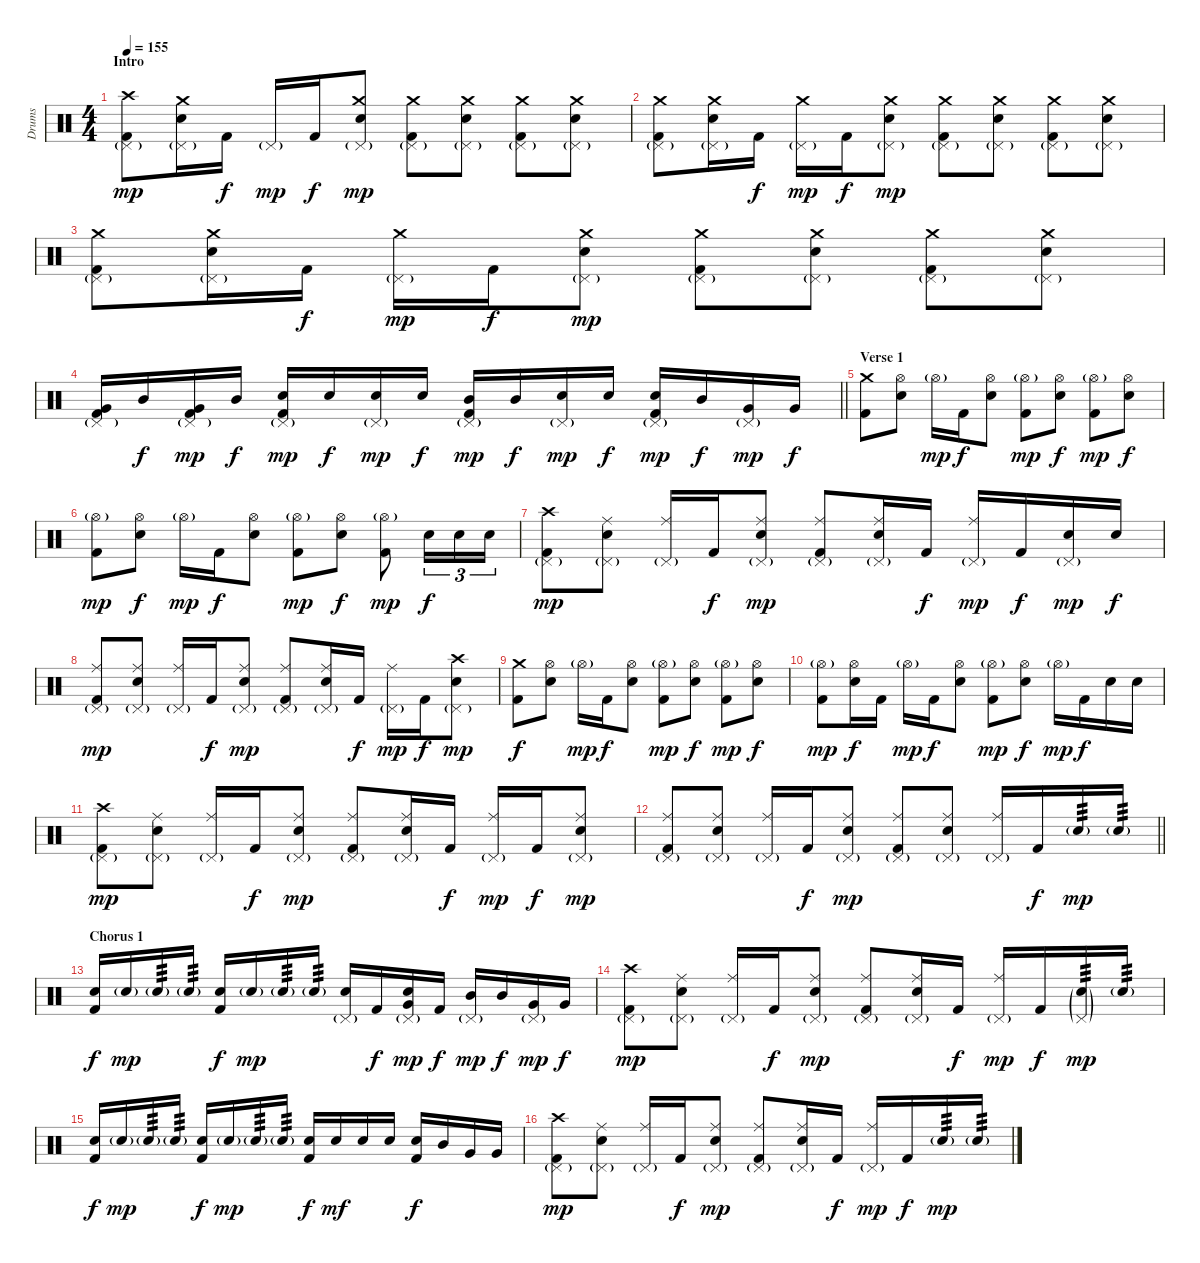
\track ("Drums" "Drums") {instrument percussion}
\staff {score}
\articulation defaults
\ts (4 4)
\section ("" "Intro")
\tempo 155
\clef neutral
\ks c
("Crash high (hit)" "Pedal Hi-Hat (hit)"{g} "Kick (hit) 2").8{dy mp} ("Crash medium (hit)" "Pedal Hi-Hat (hit)"{g} "Electric Snare (hit)").16 "Kick (hit) 2".16{dy f} "Pedal Hi-Hat (hit)"{g}.16{dy mp} "Kick (hit) 2".16{dy f} ("Crash medium (hit)" "Pedal Hi-Hat (hit)"{g} "Electric Snare (hit)").8{dy mp} ("Crash medium (hit)" "Pedal Hi-Hat (hit)"{g} "Kick (hit) 2").8 ("Crash medium (hit)" "Pedal Hi-Hat (hit)"{g} "Electric Snare (hit)").8 ("Crash medium (hit)" "Pedal Hi-Hat (hit)"{g} "Kick (hit) 2").8 ("Crash medium (hit)" "Pedal Hi-Hat (hit)"{g} "Electric Snare (hit)").8 |
("Crash medium (hit)" "Pedal Hi-Hat (hit)"{g} "Kick (hit) 2").8 ("Crash medium (hit)" "Pedal Hi-Hat (hit)"{g} "Electric Snare (hit)").16 "Kick (hit) 2".16{dy f} ("Crash medium (hit)" "Pedal Hi-Hat (hit)"{g}).16{dy mp} "Kick (hit) 2".16{dy f} ("Crash medium (hit)" "Pedal Hi-Hat (hit)"{g} "Electric Snare (hit)").8{dy mp} ("Crash medium (hit)" "Pedal Hi-Hat (hit)"{g} "Kick (hit) 2").8 ("Crash medium (hit)" "Pedal Hi-Hat (hit)"{g} "Electric Snare (hit)").8 ("Crash medium (hit)" "Pedal Hi-Hat (hit)"{g} "Kick (hit) 2").8 ("Crash medium (hit)" "Pedal Hi-Hat (hit)"{g} "Electric Snare (hit)").8 |
("Crash medium (hit)" "Pedal Hi-Hat (hit)"{g} "Kick (hit) 2").8 ("Crash medium (hit)" "Pedal Hi-Hat (hit)"{g} "Electric Snare (hit)").16 "Kick (hit) 2".16{dy f} ("Crash medium (hit)" "Pedal Hi-Hat (hit)"{g}).16{dy mp} "Kick (hit) 2".16{dy f} ("Crash medium (hit)" "Pedal Hi-Hat (hit)"{g} "Electric Snare (hit)").8{dy mp} ("Crash medium (hit)" "Pedal Hi-Hat (hit)"{g} "Kick (hit) 2").8 ("Crash medium (hit)" "Pedal Hi-Hat (hit)"{g} "Electric Snare (hit)").8 ("Crash medium (hit)" "Pedal Hi-Hat (hit)"{g} "Kick (hit) 2").8 ("Crash medium (hit)" "Pedal Hi-Hat (hit)"{g} "Electric Snare (hit)").8 |
\barLineRight lightlight
("Pedal Hi-Hat (hit)"{g} "Very Low Tom (hit)" "Kick (hit) 2").16 "Mid Tom (hit)".16{dy f} ("Pedal Hi-Hat (hit)"{g} "Very Low Tom (hit)" "Kick (hit) 2").16{dy mp} "Mid Tom (hit)".16{dy f} ("Pedal Hi-Hat (hit)"{g} "Electric Snare (hit)" "Kick (hit) 2").16{dy mp} "Electric Snare (hit)".16{dy f} ("Pedal Hi-Hat (hit)"{g} "Electric Snare (hit)").16{dy mp} "Electric Snare (hit)".16{dy f} ("Pedal Hi-Hat (hit)"{g} "Mid Tom (hit)" "Kick (hit) 2").16{dy mp} "Mid Tom (hit)".16{dy f} ("Pedal Hi-Hat (hit)"{g} "Electric Snare (hit)").16{dy mp} "Electric Snare (hit)".16{dy f} ("Pedal Hi-Hat (hit)"{g} "Electric Snare (hit)" "Kick (hit) 2").16{dy mp} "Mid Tom (hit)".16{dy f} ("Pedal Hi-Hat (hit)"{g} "Very Low Tom (hit)").16{dy mp} "Very Low Tom (hit)".16{dy f} |
\section ("" "Verse 1")
("Crash medium (hit)" "Kick (hit) 2").8 ("Hi-Hat (open)" "Electric Snare (hit)").8 "Hi-Hat (open)"{g}.16{dy mp} "Kick (hit) 2".16{dy f} ("Hi-Hat (open)" "Electric Snare (hit)").8 ("Hi-Hat (open)"{g} "Kick (hit) 2").8{dy mp} ("Hi-Hat (open)" "Electric Snare (hit)").8{dy f} ("Hi-Hat (open)"{g} "Kick (hit) 2").8{dy mp} ("Hi-Hat (open)" "Electric Snare (hit)").8{dy f} |
("Hi-Hat (open)"{g} "Kick (hit) 2").8{dy mp} ("Hi-Hat (open)" "Electric Snare (hit)").8{dy f} "Hi-Hat (open)"{g}.16{dy mp} "Kick (hit) 2".16{dy f} ("Hi-Hat (open)" "Electric Snare (hit)").8 ("Hi-Hat (open)"{g} "Kick (hit) 2").8{dy mp} ("Hi-Hat (open)" "Electric Snare (hit)").8{dy f} ("Hi-Hat (open)"{g} "Kick (hit) 2").8{dy mp} "Electric Snare (hit)".16{tu (3 2) dy f} "Electric Snare (hit)".16{tu (3 2)} "Electric Snare (hit)".16{tu (3 2)} |
("Crash high (hit)" "Pedal Hi-Hat (hit)"{g} "Kick (hit) 2").8{dy mp} ("Ride (middle)" "Pedal Hi-Hat (hit)"{g} "Electric Snare (hit)").8 ("Ride (middle)" "Pedal Hi-Hat (hit)"{g}).16 "Kick (hit) 2".16{dy f} ("Ride (middle)" "Pedal Hi-Hat (hit)"{g} "Electric Snare (hit)").8{dy mp} ("Ride (middle)" "Pedal Hi-Hat (hit)"{g} "Kick (hit) 2").8 ("Ride (middle)" "Pedal Hi-Hat (hit)"{g} "Electric Snare (hit)").16 "Kick (hit) 2".16{dy f} ("Ride (middle)" "Pedal Hi-Hat (hit)"{g}).16{dy mp} "Kick (hit) 2".16{dy f} ("Pedal Hi-Hat (hit)"{g} "Electric Snare (hit)").16{dy mp} "Electric Snare (hit)".16{dy f} |
("Ride (middle)" "Pedal Hi-Hat (hit)"{g} "Kick (hit) 2").8{dy mp} ("Ride (middle)" "Pedal Hi-Hat (hit)"{g} "Electric Snare (hit)").8 ("Ride (middle)" "Pedal Hi-Hat (hit)"{g}).16 "Kick (hit) 2".16{dy f} ("Ride (middle)" "Pedal Hi-Hat (hit)"{g} "Electric Snare (hit)").8{dy mp} ("Ride (middle)" "Pedal Hi-Hat (hit)"{g} "Kick (hit) 2").8 ("Ride (middle)" "Pedal Hi-Hat (hit)"{g} "Electric Snare (hit)").16 "Kick (hit) 2".16{dy f} ("Ride (middle)" "Pedal Hi-Hat (hit)"{g}).16{dy mp} "Kick (hit) 2".16{dy f} ("Crash high (hit)" "Pedal Hi-Hat (hit)"{g} "Electric Snare (hit)").8{dy mp} |
("Crash medium (hit)" "Kick (hit) 2").8{dy f} ("Hi-Hat (open)" "Electric Snare (hit)").8 "Hi-Hat (open)"{g}.16{dy mp} "Kick (hit) 2".16{dy f} ("Hi-Hat (open)" "Electric Snare (hit)").8 ("Hi-Hat (open)"{g} "Kick (hit) 2").8{dy mp} ("Hi-Hat (open)" "Electric Snare (hit)").8{dy f} ("Hi-Hat (open)"{g} "Kick (hit) 2").8{dy mp} ("Hi-Hat (open)" "Electric Snare (hit)").8{dy f} |
("Hi-Hat (open)"{g} "Kick (hit) 2").8{dy mp} ("Hi-Hat (open)" "Electric Snare (hit)").16{dy f} "Kick (hit) 2".16 "Hi-Hat (open)"{g}.16{dy mp} "Kick (hit) 2".16{dy f} ("Hi-Hat (open)" "Electric Snare (hit)").8 ("Hi-Hat (open)"{g} "Kick (hit) 2").8{dy mp} ("Hi-Hat (open)" "Electric Snare (hit)").8{dy f} "Hi-Hat (open)"{g}.16{dy mp} "Kick (hit) 2".16{dy f} "Electric Snare (hit)".16 "Electric Snare (hit)".16 |
("Crash high (hit)" "Pedal Hi-Hat (hit)"{g} "Kick (hit) 2").8{dy mp} ("Ride (middle)" "Pedal Hi-Hat (hit)"{g} "Electric Snare (hit)").8 ("Ride (middle)" "Pedal Hi-Hat (hit)"{g}).16 "Kick (hit) 2".16{dy f} ("Ride (middle)" "Pedal Hi-Hat (hit)"{g} "Electric Snare (hit)").8{dy mp} ("Ride (middle)" "Pedal Hi-Hat (hit)"{g} "Kick (hit) 2").8 ("Ride (middle)" "Pedal Hi-Hat (hit)"{g} "Electric Snare (hit)").16 "Kick (hit) 2".16{dy f} ("Ride (middle)" "Pedal Hi-Hat (hit)"{g}).16{dy mp} "Kick (hit) 2".16{dy f} ("Ride (middle)" "Pedal Hi-Hat (hit)"{g} "Electric Snare (hit)").8{dy mp} |
\barLineRight lightlight
("Ride (middle)" "Pedal Hi-Hat (hit)"{g} "Kick (hit) 2").8 ("Ride (middle)" "Pedal Hi-Hat (hit)"{g} "Electric Snare (hit)").8 ("Ride (middle)" "Pedal Hi-Hat (hit)"{g}).16 "Kick (hit) 2".16{dy f} ("Ride (middle)" "Pedal Hi-Hat (hit)"{g} "Electric Snare (hit)").8{dy mp} ("Ride (middle)" "Pedal Hi-Hat (hit)"{g} "Kick (hit) 2").8 ("Ride (middle)" "Pedal Hi-Hat (hit)"{g} "Electric Snare (hit)").8 ("Ride (middle)" "Pedal Hi-Hat (hit)"{g}).16 "Kick (hit) 2".16{dy f} "Electric Snare (hit)"{g}.16{tp 3 dy mp} "Electric Snare (hit)"{g}.16{tp 3} |
\section ("" "Chorus 1")
("Electric Snare (hit)" "Kick (hit) 2").16{dy f} "Electric Snare (hit)"{g}.16{dy mp} "Electric Snare (hit)"{g}.16{tp 3} "Electric Snare (hit)"{g}.16{tp 3} ("Electric Snare (hit)" "Kick (hit) 2").16{dy f} "Electric Snare (hit)"{g}.16{dy mp} "Electric Snare (hit)"{g}.16{tp 3} "Electric Snare (hit)"{g}.16{tp 3} ("Pedal Hi-Hat (hit)"{g} "Electric Snare (hit)").16 "Kick (hit) 2".16{dy f} ("Pedal Hi-Hat (hit)"{g} "Electric Snare (hit)" "Very Low Tom (hit)").16{dy mp} "Kick (hit) 2".16{dy f} ("Pedal Hi-Hat (hit)"{g} "Mid Tom (hit)").16{dy mp} "Mid Tom (hit)".16{dy f} ("Pedal Hi-Hat (hit)"{g} "Very Low Tom (hit)").16{dy mp} "Very Low Tom (hit)".16{dy f} |
("Crash high (hit)" "Pedal Hi-Hat (hit)"{g} "Kick (hit) 2").8{dy mp} ("Ride (middle)" "Pedal Hi-Hat (hit)"{g} "Electric Snare (hit)").8 ("Ride (middle)" "Pedal Hi-Hat (hit)"{g}).16 "Kick (hit) 2".16{dy f} ("Ride (middle)" "Pedal Hi-Hat (hit)"{g} "Electric Snare (hit)").8{dy mp} ("Ride (middle)" "Pedal Hi-Hat (hit)"{g} "Kick (hit) 2").8 ("Ride (middle)" "Pedal Hi-Hat (hit)"{g} "Electric Snare (hit)").16 "Kick (hit) 2".16{dy f} ("Ride (middle)" "Pedal Hi-Hat (hit)"{g}).16{dy mp} "Kick (hit) 2".16{dy f} ("Pedal Hi-Hat (hit)"{g} "Electric Snare (hit)"{g}).16{tp 3 dy mp} "Electric Snare (hit)"{g}.16{tp 3} |
("Electric Snare (hit)" "Kick (hit) 2").16{dy f} "Electric Snare (hit)"{g}.16{dy mp} "Electric Snare (hit)"{g}.16{tp 3} "Electric Snare (hit)"{g}.16{tp 3} ("Electric Snare (hit)" "Kick (hit) 2").16{dy f} "Electric Snare (hit)"{g}.16{dy mp} "Electric Snare (hit)"{g}.16{tp 3} "Electric Snare (hit)"{g}.16{tp 3} ("Electric Snare (hit)" "Kick (hit) 2").16{dy f} "Electric Snare (hit)".16{dy mf} "Electric Snare (hit)".16 "Electric Snare (hit)".16 ("Electric Snare (hit)" "Kick (hit) 2").16{dy f} "Mid Tom (hit)".16 "Very Low Tom (hit)".16 "Very Low Tom (hit)".16 |
("Crash high (hit)" "Pedal Hi-Hat (hit)"{g} "Kick (hit) 2").8{dy mp} ("Ride (middle)" "Pedal Hi-Hat (hit)"{g} "Electric Snare (hit)").8 ("Ride (middle)" "Pedal Hi-Hat (hit)"{g}).16 "Kick (hit) 2".16{dy f} ("Ride (middle)" "Pedal Hi-Hat (hit)"{g} "Electric Snare (hit)").8{dy mp} ("Ride (middle)" "Pedal Hi-Hat (hit)"{g} "Kick (hit) 2").8 ("Ride (middle)" "Pedal Hi-Hat (hit)"{g} "Electric Snare (hit)").16 "Kick (hit) 2".16{dy f} ("Ride (middle)" "Pedal Hi-Hat (hit)"{g}).16{dy mp} "Kick (hit) 2".16{dy f} "Electric Snare (hit)"{g}.16{tp 3 dy mp} "Electric Snare (hit)"{g}.16{tp 3}
